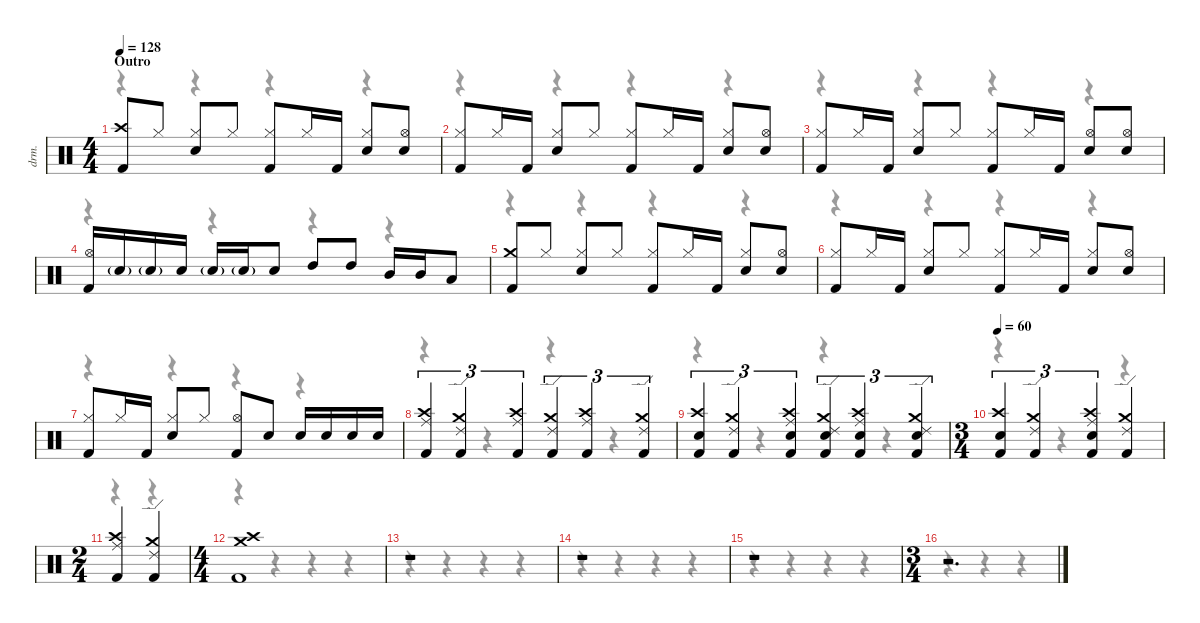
\defaultSystemsLayout 4
\hideDynamics
\bracketExtendMode nobrackets
\track ("Drums" "drm.") {instrument percussion}
\staff {score}
\articulation defaults
\voice
\ts (4 4)
\section ("" "Outro")
\tempo 128
\clef neutral
\ks c
("Kick (hit) 2" "Crash high (hit)").8{dy fff} "Hi-Hat (closed)".8{dy p} ("Snare (hit) 2" "Hi-Hat (closed)").8{dy fff} "Hi-Hat (closed)".8{dy p} ("Kick (hit) 2" "Hi-Hat (closed)").8{dy fff} "Hi-Hat (closed)".16{dy p} "Kick (hit) 2".16{dy fff} ("Snare (hit) 2" "Hi-Hat (closed)").8 ("Snare (hit) 2" "Hi-Hat (open)").8 |
("Kick (hit) 2" "Hi-Hat (closed)").8 "Hi-Hat (closed)".16{dy p} "Kick (hit) 2".16{dy fff} ("Snare (hit) 2" "Hi-Hat (closed)").8 "Hi-Hat (closed)".8{dy p} ("Kick (hit) 2" "Hi-Hat (closed)").8{dy fff} "Hi-Hat (closed)".16{dy p} "Kick (hit) 2".16{dy fff} ("Snare (hit) 2" "Hi-Hat (closed)").8 ("Snare (hit) 2" "Hi-Hat (open)").8 |
("Kick (hit) 2" "Hi-Hat (closed)").8 "Hi-Hat (closed)".16{dy p} "Kick (hit) 2".16{dy fff} ("Snare (hit) 2" "Hi-Hat (closed)").8 "Hi-Hat (closed)".8{dy p} ("Kick (hit) 2" "Hi-Hat (closed)").8{dy fff} "Hi-Hat (closed)".16{dy p} "Kick (hit) 2".16{dy fff} ("Snare (hit) 2" "Hi-Hat (open)").8 ("Snare (hit) 2" "Hi-Hat (open)").8 |
("Kick (hit) 2" "Hi-Hat (open)").16 "Snare (hit) 2"{g}.16{dy mf} "Snare (hit) 2"{g}.16 "Snare (hit) 2".16{dy fff} "Snare (hit) 2"{g}.16{dy mf} "Snare (hit) 2"{g}.16 "Snare (hit) 2".8{dy fff} "High Tom (hit)".8 "High Tom (hit)".8 "Mid Tom (hit)".16 "Mid Tom (hit)".16 "Low Tom (hit)".8 |
("Kick (hit) 2" "Crash medium (hit)").8 "Hi-Hat (closed)".8{dy p} ("Snare (hit) 2" "Hi-Hat (closed)").8{dy fff} "Hi-Hat (closed)".8{dy p} ("Kick (hit) 2" "Hi-Hat (closed)").8{dy fff} "Hi-Hat (closed)".16{dy p} "Kick (hit) 2".16{dy fff} ("Snare (hit) 2" "Hi-Hat (closed)").8 ("Snare (hit) 2" "Hi-Hat (open)").8 |
("Kick (hit) 2" "Hi-Hat (closed)").8 "Hi-Hat (closed)".16{dy p} "Kick (hit) 2".16{dy fff} ("Snare (hit) 2" "Hi-Hat (closed)").8 "Hi-Hat (closed)".8{dy p} ("Kick (hit) 2" "Hi-Hat (closed)").8{dy fff} "Hi-Hat (closed)".16{dy p} "Kick (hit) 2".16{dy fff} ("Snare (hit) 2" "Hi-Hat (closed)").8 ("Snare (hit) 2" "Hi-Hat (open)").8 |
("Kick (hit) 2" "Hi-Hat (closed)").8 "Hi-Hat (closed)".16{dy p} "Kick (hit) 2".16{dy fff} ("Snare (hit) 2" "Hi-Hat (closed)").8 "Hi-Hat (closed)".8{dy p} ("Kick (hit) 2" "Hi-Hat (open)").8{dy fff} "Snare (hit) 2".8{dy ff} "Snare (hit) 2".16 "Snare (hit) 2".16 "Snare (hit) 2".16{dy fff} "Snare (hit) 2".16 |
("Kick (hit) 2" "Ride (middle)" "Crash high (hit)").4{tu (3 2)} ("Kick (hit) 2" "Ride (edge) 2" "Crash medium (hit)").4{tu (3 2)} ("Kick (hit) 2" "Ride (middle)" "Crash high (hit)").4{tu (3 2)} ("Kick (hit) 2" "Ride (edge) 2" "Crash medium (hit)").4{tu (3 2)} ("Kick (hit) 2" "Ride (middle)" "Crash high (hit)").4{tu (3 2)} ("Kick (hit) 2" "Ride (edge) 2" "Crash medium (hit)").4{tu (3 2)} |
("Kick (hit) 2" "Snare (hit) 2" "Crash high (hit)").4{tu (3 2)} ("Kick (hit) 2" "Ride (edge) 2" "Crash medium (hit)").4{tu (3 2)} ("Kick (hit) 2" "Snare (hit) 2" "Ride (middle)" "Crash high (hit)").4{tu (3 2)} ("Kick (hit) 2" "Snare (hit) 2" "Ride (edge) 2" "Crash medium (hit)").4{tu (3 2)} ("Kick (hit) 2" "Snare (hit) 2" "Ride (middle)" "Crash high (hit)").4{tu (3 2)} ("Kick (hit) 2" "Snare (hit) 2" "Ride (edge) 2" "Crash medium (hit)").4{tu (3 2)} |
\ts (3 4)
\beaming (8 3 1 1 1)
\tempo 60
("Kick (hit) 2" "Snare (hit) 2" "Crash high (hit)").4{tu (3 2)} ("Kick (hit) 2" "Ride (edge) 2" "Crash medium (hit)").4{tu (3 2)} ("Kick (hit) 2" "Snare (hit) 2" "Ride (middle)" "Crash high (hit)").4{tu (3 2)} ("Kick (hit) 2" "Ride (edge) 2" "Crash medium (hit)").4 |
\ts (2 4)
\beaming (8 1 1 1 1)
("Kick (hit) 2" "Ride (middle)" "Crash high (hit)").4 ("Kick (hit) 2" "Ride (edge) 2" "Crash medium (hit)").4 |
\ts (4 4)
\beaming (8 2 2 2 2)
("Kick (hit) 2" "Crash medium (hit)" "Crash high (hit)").1 |
r.1 |
r.1 |
r.1 |
\ts (3 4)
\beaming (8 3 1 1 1)
r.2{d}
\voice
\clef neutral
\ottava regular
\simile none
\ks c
r.4{dy mf} r.4 r.4 r.4 |
r.4 r.4 r.4 r.4 |
r.4 r.4 r.4 r.4 |
r.4 r.4 r.4 r.4 |
r.4 r.4 r.4 r.4 |
r.4 r.4 r.4 r.4 |
r.4 r.4 r.4 r.4 |
r.4 r.4 r.4 r.4 |
r.4 r.4 r.4 r.4 |
r.4 r.4 r.4 |
r.4 r.4 |
r.4 r.4 r.4 r.4 |
r.4 r.4 r.4 r.4 |
r.4 r.4 r.4 r.4 |
r.4 r.4 r.4 r.4 |
r.4 r.4 r.4
